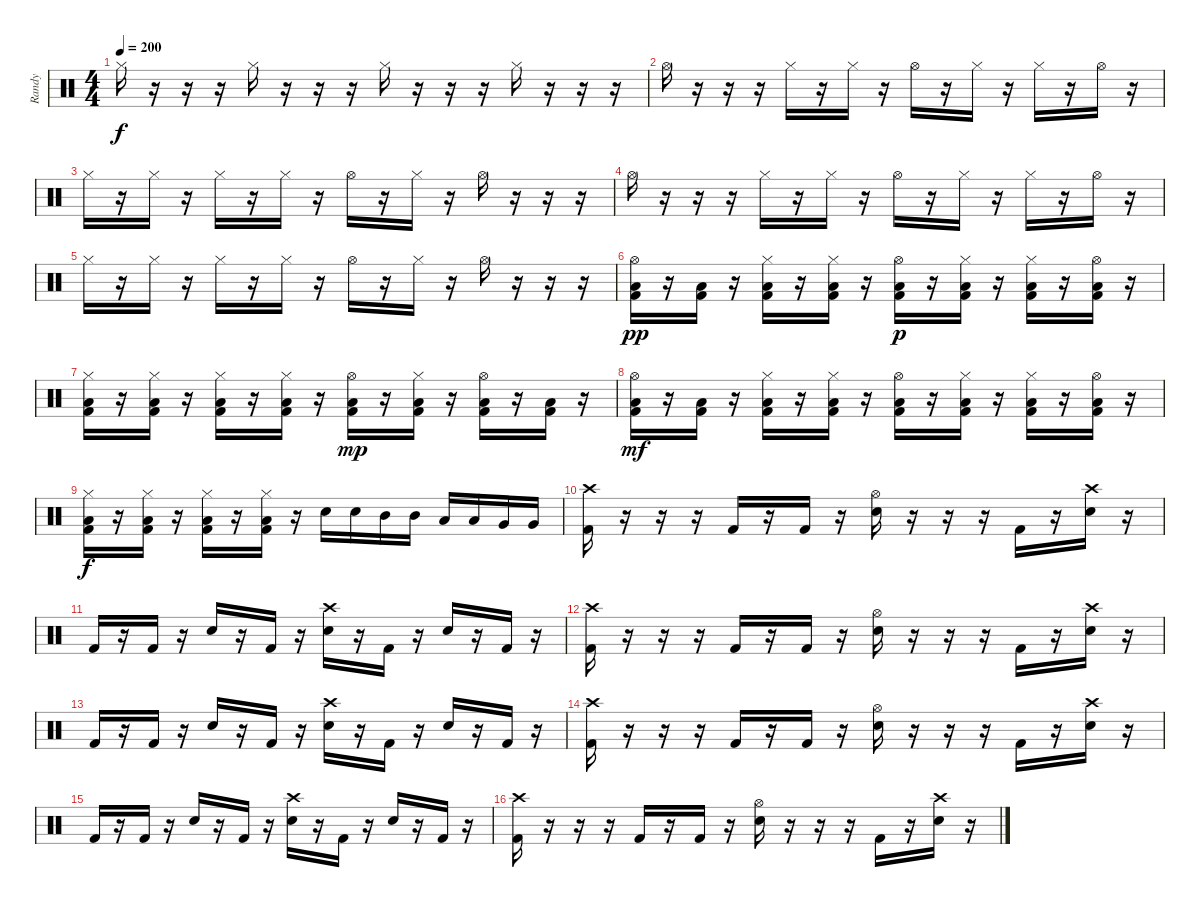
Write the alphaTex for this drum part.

\track ("Randy" "Randy") {instrument percussion}
\staff {score}
\articulation defaults
\ts (4 4)
\tempo 200
\clef neutral
\ks c "Hi-Hat (closed)".16{dy f}
r.16 r.16 r.16 "Hi-Hat (closed)".16 r.16 r.16 r.16 "Hi-Hat (closed)".16 r.16 r.16 r.16 "Hi-Hat (closed)".16 r.16 r.16 r.16 |
"Hi-Hat (open)".16 r.16 r.16 r.16 "Hi-Hat (closed)".16 r.16 "Hi-Hat (closed)".16 r.16 "Hi-Hat (open)".16 r.16 "Hi-Hat (closed)".16 r.16 "Hi-Hat (closed)".16 r.16 "Hi-Hat (open)".16 r.16 |
"Hi-Hat (closed)".16 r.16 "Hi-Hat (closed)".16 r.16 "Hi-Hat (closed)".16 r.16 "Hi-Hat (closed)".16 r.16 "Hi-Hat (open)".16 r.16 "Hi-Hat (closed)".16 r.16 "Hi-Hat (open)".16 r.16 r.16 r.16 |
"Hi-Hat (open)".16 r.16 r.16 r.16 "Hi-Hat (closed)".16 r.16 "Hi-Hat (closed)".16 r.16 "Hi-Hat (open)".16 r.16 "Hi-Hat (closed)".16 r.16 "Hi-Hat (closed)".16 r.16 "Hi-Hat (open)".16 r.16 |
"Hi-Hat (closed)".16 r.16 "Hi-Hat (closed)".16 r.16 "Hi-Hat (closed)".16 r.16 "Hi-Hat (closed)".16 r.16 "Hi-Hat (open)".16 r.16 "Hi-Hat (closed)".16 r.16 "Hi-Hat (open)".16 r.16 r.16 r.16 |
("Kick (hit) 2" "Low Tom (hit)" "Hi-Hat (open)").16{dy pp} r.16 ("Kick (hit) 2" "Low Tom (hit)").16 r.16 ("Kick (hit) 2" "Low Tom (hit)" "Hi-Hat (closed)").16 r.16 ("Kick (hit) 2" "Low Tom (hit)" "Hi-Hat (closed)").16 r.16 ("Kick (hit) 2" "Low Tom (hit)" "Hi-Hat (open)").16{dy p} r.16 ("Kick (hit) 2" "Low Tom (hit)" "Hi-Hat (closed)").16 r.16 ("Kick (hit) 2" "Low Tom (hit)" "Hi-Hat (closed)").16 r.16 ("Kick (hit) 2" "Low Tom (hit)" "Hi-Hat (open)").16 r.16 |
("Kick (hit) 2" "Low Tom (hit)" "Hi-Hat (closed)").16 r.16 ("Kick (hit) 2" "Low Tom (hit)" "Hi-Hat (closed)").16 r.16 ("Kick (hit) 2" "Low Tom (hit)" "Hi-Hat (closed)").16 r.16 ("Kick (hit) 2" "Low Tom (hit)" "Hi-Hat (closed)").16 r.16 ("Kick (hit) 2" "Low Tom (hit)" "Hi-Hat (open)").16{dy mp} r.16 ("Kick (hit) 2" "Low Tom (hit)" "Hi-Hat (closed)").16 r.16 ("Kick (hit) 2" "Low Tom (hit)" "Hi-Hat (open)").16 r.16 ("Kick (hit) 2" "Low Tom (hit)").16 r.16 |
("Kick (hit) 2" "Low Tom (hit)" "Hi-Hat (open)").16{dy mf} r.16 ("Kick (hit) 2" "Low Tom (hit)").16 r.16 ("Kick (hit) 2" "Low Tom (hit)" "Hi-Hat (closed)").16 r.16 ("Kick (hit) 2" "Low Tom (hit)" "Hi-Hat (closed)").16 r.16 ("Kick (hit) 2" "Low Tom (hit)" "Hi-Hat (open)").16 r.16 ("Kick (hit) 2" "Low Tom (hit)" "Hi-Hat (closed)").16 r.16 ("Kick (hit) 2" "Low Tom (hit)" "Hi-Hat (closed)").16 r.16 ("Kick (hit) 2" "Low Tom (hit)" "Hi-Hat (open)").16 r.16 |
("Kick (hit) 2" "Low Tom (hit)" "Hi-Hat (closed)").16{dy f} r.16 ("Kick (hit) 2" "Low Tom (hit)" "Hi-Hat (closed)").16 r.16 ("Kick (hit) 2" "Low Tom (hit)" "Hi-Hat (closed)").16 r.16 ("Kick (hit) 2" "Low Tom (hit)" "Hi-Hat (closed)").16 r.16 "Electric Snare (hit)".16 "Electric Snare (hit)".16 "Mid Tom (hit)".16 "Mid Tom (hit)".16 "Low Tom (hit)".16 "Low Tom (hit)".16 "Very Low Tom (hit)".16 "Very Low Tom (hit)".16 |
("Kick (hit) 2" "Crash high (hit)").16 r.16 r.16 r.16 "Kick (hit) 2".16 r.16 "Kick (hit) 2".16 r.16 ("Electric Snare (hit)" "Hi-Hat (open)").16 r.16 r.16 r.16 "Kick (hit) 2".16 r.16 ("Electric Snare (hit)" "Crash high (hit)").16 r.16 |
"Kick (hit) 2".16 r.16 "Kick (hit) 2".16 r.16 "Electric Snare (hit)".16 r.16 "Kick (hit) 2".16 r.16 ("Electric Snare (hit)" "Crash high (hit)").16 r.16 "Kick (hit) 2".16 r.16 "Electric Snare (hit)".16 r.16 "Kick (hit) 2".16 r.16 |
("Kick (hit) 2" "Crash high (hit)").16 r.16 r.16 r.16 "Kick (hit) 2".16 r.16 "Kick (hit) 2".16 r.16 ("Electric Snare (hit)" "Hi-Hat (open)").16 r.16 r.16 r.16 "Kick (hit) 2".16 r.16 ("Electric Snare (hit)" "Crash high (hit)").16 r.16 |
"Kick (hit) 2".16 r.16 "Kick (hit) 2".16 r.16 "Electric Snare (hit)".16 r.16 "Kick (hit) 2".16 r.16 ("Electric Snare (hit)" "Crash high (hit)").16 r.16 "Kick (hit) 2".16 r.16 "Electric Snare (hit)".16 r.16 "Kick (hit) 2".16 r.16 |
("Kick (hit) 2" "Crash high (hit)").16 r.16 r.16 r.16 "Kick (hit) 2".16 r.16 "Kick (hit) 2".16 r.16 ("Electric Snare (hit)" "Hi-Hat (open)").16 r.16 r.16 r.16 "Kick (hit) 2".16 r.16 ("Electric Snare (hit)" "Crash high (hit)").16 r.16 |
"Kick (hit) 2".16 r.16 "Kick (hit) 2".16 r.16 "Electric Snare (hit)".16 r.16 "Kick (hit) 2".16 r.16 ("Electric Snare (hit)" "Crash high (hit)").16 r.16 "Kick (hit) 2".16 r.16 "Electric Snare (hit)".16 r.16 "Kick (hit) 2".16 r.16 |
("Kick (hit) 2" "Crash high (hit)").16 r.16 r.16 r.16 "Kick (hit) 2".16 r.16 "Kick (hit) 2".16 r.16 ("Electric Snare (hit)" "Hi-Hat (open)").16 r.16 r.16 r.16 "Kick (hit) 2".16 r.16 ("Electric Snare (hit)" "Crash high (hit)").16 r.16
